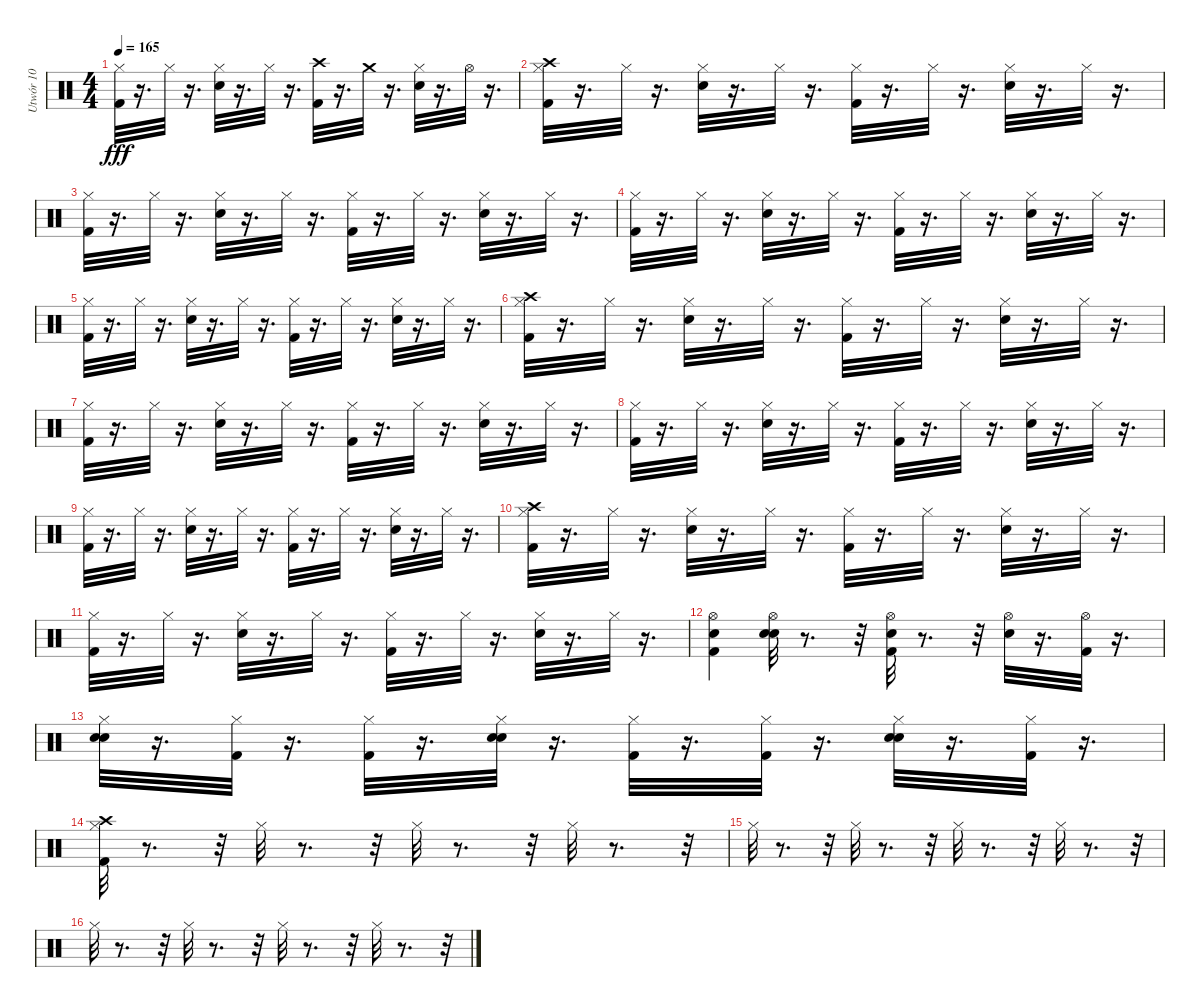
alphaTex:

\track ("Utwór 10" "Utwór 10") {instrument percussion}
\staff {score}
\articulation defaults
\ts (4 4)
\tempo 165
\clef neutral
\ks c
("Hi-Hat (closed)" "Kick (hit) 2").32{dy fff} r.16{d} "Hi-Hat (closed)".32 r.16{d} ("Hi-Hat (closed)" "Electric Snare (hit)").32 r.16{d} "Hi-Hat (closed)".32 r.16{d} ("Crash high (hit)" "Kick (hit) 2").32 r.16{d} "Crash medium (hit)".32 r.16{d} ("Hi-Hat (closed)" "Electric Snare (hit)").32 r.16{d} "Hi-Hat (open)".32 r.16{d} |
("Crash high (hit)" "Hi-Hat (closed)" "Kick (hit) 2").32 r.16{d} "Hi-Hat (closed)".32 r.16{d} ("Hi-Hat (closed)" "Electric Snare (hit)").32 r.16{d} "Hi-Hat (closed)".32 r.16{d} ("Hi-Hat (closed)" "Kick (hit) 2").32 r.16{d} "Hi-Hat (closed)".32 r.16{d} ("Hi-Hat (closed)" "Electric Snare (hit)").32 r.16{d} "Hi-Hat (closed)".32 r.16{d} |
("Hi-Hat (closed)" "Kick (hit) 2").32 r.16{d} "Hi-Hat (closed)".32 r.16{d} ("Hi-Hat (closed)" "Electric Snare (hit)").32 r.16{d} "Hi-Hat (closed)".32 r.16{d} ("Hi-Hat (closed)" "Kick (hit) 2").32 r.16{d} "Hi-Hat (closed)".32 r.16{d} ("Hi-Hat (closed)" "Electric Snare (hit)").32 r.16{d} "Hi-Hat (closed)".32 r.16{d} |
("Hi-Hat (closed)" "Kick (hit) 2").32 r.16{d} "Hi-Hat (closed)".32 r.16{d} ("Hi-Hat (closed)" "Electric Snare (hit)").32 r.16{d} "Hi-Hat (closed)".32 r.16{d} ("Hi-Hat (closed)" "Kick (hit) 2").32 r.16{d} "Hi-Hat (closed)".32 r.16{d} ("Hi-Hat (closed)" "Electric Snare (hit)").32 r.16{d} "Hi-Hat (closed)".32 r.16{d} |
("Hi-Hat (closed)" "Kick (hit) 2").32 r.16{d} "Hi-Hat (closed)".32 r.16{d} ("Hi-Hat (closed)" "Electric Snare (hit)").32 r.16{d} "Hi-Hat (closed)".32 r.16{d} ("Hi-Hat (closed)" "Kick (hit) 2").32 r.16{d} "Hi-Hat (closed)".32 r.16{d} ("Hi-Hat (closed)" "Electric Snare (hit)").32 r.16{d} "Hi-Hat (closed)".32 r.16{d} |
("Crash high (hit)" "Hi-Hat (closed)" "Kick (hit) 2").32 r.16{d} "Hi-Hat (closed)".32 r.16{d} ("Hi-Hat (closed)" "Electric Snare (hit)").32 r.16{d} "Hi-Hat (closed)".32 r.16{d} ("Hi-Hat (closed)" "Kick (hit) 2").32 r.16{d} "Hi-Hat (closed)".32 r.16{d} ("Hi-Hat (closed)" "Electric Snare (hit)").32 r.16{d} "Hi-Hat (closed)".32 r.16{d} |
("Hi-Hat (closed)" "Kick (hit) 2").32 r.16{d} "Hi-Hat (closed)".32 r.16{d} ("Hi-Hat (closed)" "Electric Snare (hit)").32 r.16{d} "Hi-Hat (closed)".32 r.16{d} ("Hi-Hat (closed)" "Kick (hit) 2").32 r.16{d} "Hi-Hat (closed)".32 r.16{d} ("Hi-Hat (closed)" "Electric Snare (hit)").32 r.16{d} "Hi-Hat (closed)".32 r.16{d} |
("Hi-Hat (closed)" "Kick (hit) 2").32 r.16{d} "Hi-Hat (closed)".32 r.16{d} ("Hi-Hat (closed)" "Electric Snare (hit)").32 r.16{d} "Hi-Hat (closed)".32 r.16{d} ("Hi-Hat (closed)" "Kick (hit) 2").32 r.16{d} "Hi-Hat (closed)".32 r.16{d} ("Hi-Hat (closed)" "Electric Snare (hit)").32 r.16{d} "Hi-Hat (closed)".32 r.16{d} |
("Hi-Hat (closed)" "Kick (hit) 2").32 r.16{d} "Hi-Hat (closed)".32 r.16{d} ("Hi-Hat (closed)" "Electric Snare (hit)").32 r.16{d} "Hi-Hat (closed)".32 r.16{d} ("Hi-Hat (closed)" "Kick (hit) 2").32 r.16{d} "Hi-Hat (closed)".32 r.16{d} ("Hi-Hat (closed)" "Electric Snare (hit)").32 r.16{d} "Hi-Hat (closed)".32 r.16{d} |
("Crash high (hit)" "Hi-Hat (closed)" "Kick (hit) 2").32 r.16{d} "Hi-Hat (closed)".32 r.16{d} ("Hi-Hat (closed)" "Electric Snare (hit)").32 r.16{d} "Hi-Hat (closed)".32 r.16{d} ("Hi-Hat (closed)" "Kick (hit) 2").32 r.16{d} "Hi-Hat (closed)".32 r.16{d} ("Hi-Hat (closed)" "Electric Snare (hit)").32 r.16{d} "Hi-Hat (closed)".32 r.16{d} |
("Hi-Hat (closed)" "Kick (hit) 2").32 r.16{d} "Hi-Hat (closed)".32 r.16{d} ("Hi-Hat (closed)" "Electric Snare (hit)").32 r.16{d} "Hi-Hat (closed)".32 r.16{d} ("Hi-Hat (closed)" "Kick (hit) 2").32 r.16{d} "Hi-Hat (closed)".32 r.16{d} ("Hi-Hat (closed)" "Electric Snare (hit)").32 r.16{d} "Hi-Hat (closed)".32 r.16{d} |
("Electric Snare (hit)" "Hi-Hat (open)" "Kick (hit) 2").4 ("Electric Snare (hit)" "Hi-Hat (open)" "Electric Snare (hit)").32 r.8{d} r.32 ("Electric Snare (hit)" "Hi-Hat (open)" "Kick (hit) 2").32 r.8{d} r.32 ("Hi-Hat (open)" "Electric Snare (hit)").32 r.16{d} ("Kick (hit) 2" "Hi-Hat (open)").32 r.16{d} |
("Electric Snare (hit)" "Hi-Hat (closed)" "Electric Snare (hit)").32 r.16{d} ("Kick (hit) 2" "Hi-Hat (closed)").32 r.16{d} ("Hi-Hat (closed)" "Kick (hit) 2").32 r.16{d} ("Electric Snare (hit)" "Electric Snare (hit)" "Hi-Hat (closed)").32 r.16{d} ("Hi-Hat (closed)" "Kick (hit) 2").32 r.16{d} ("Hi-Hat (closed)" "Kick (hit) 2").32 r.16{d} ("Electric Snare (hit)" "Hi-Hat (closed)" "Electric Snare (hit)").32 r.16{d} ("Kick (hit) 2" "Hi-Hat (closed)").32 r.16{d} |
("Crash high (hit)" "Hi-Hat (closed)" "Kick (hit) 2").32 r.8{d} r.32 "Hi-Hat (closed)".32 r.8{d} r.32 "Hi-Hat (closed)".32 r.8{d} r.32 "Hi-Hat (closed)".32 r.8{d} r.32 |
"Hi-Hat (closed)".32 r.8{d} r.32 "Hi-Hat (closed)".32 r.8{d} r.32 "Hi-Hat (closed)".32 r.8{d} r.32 "Hi-Hat (closed)".32 r.8{d} r.32 |
"Hi-Hat (closed)".32 r.8{d} r.32 "Hi-Hat (closed)".32 r.8{d} r.32 "Hi-Hat (closed)".32 r.8{d} r.32 "Hi-Hat (closed)".32 r.8{d} r.32
